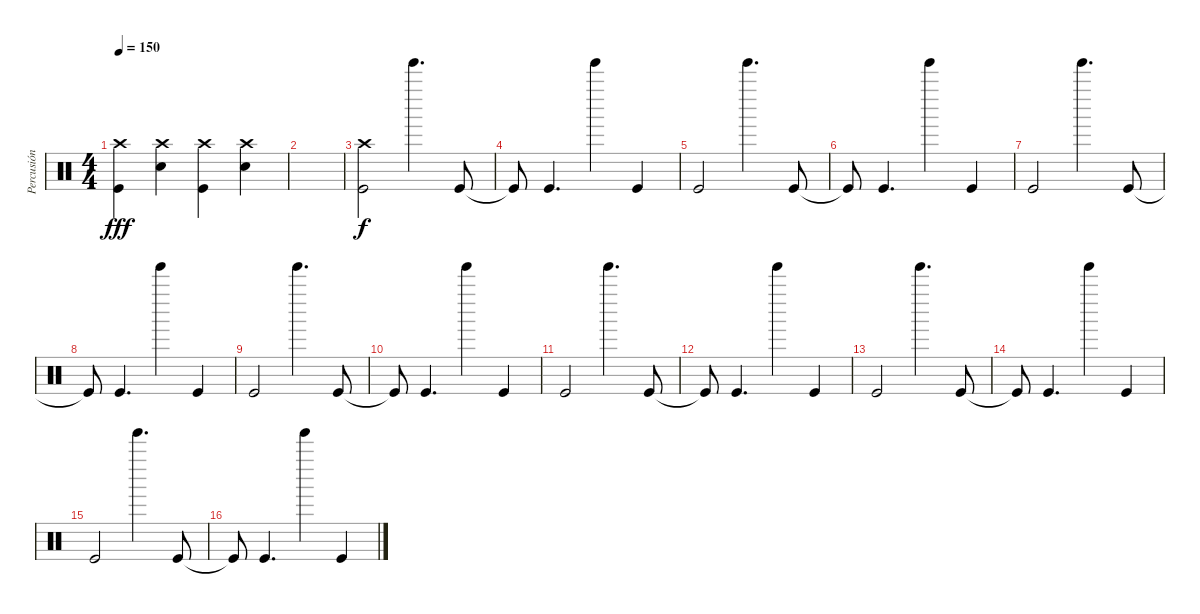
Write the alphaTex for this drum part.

\track ("Percusión" "Percusión") {instrument percussion bank 106}
\staff {score}
\articulation defaults
\ts (4 4)
\tempo 150
\clef neutral
\ks c
("Crash high (hit)" "Kick (hit)").4{dy fff} ("Crash high (hit)" "Electric Snare (hit)").4 ("Crash high (hit)" "Kick (hit)").4 ("Crash high (hit)" "Electric Snare (hit)").4 |
|
("Crash high (hit)" "Kick (hit)").2{dy f} "Tinkle Bell (hit)".4{d} "Kick (hit)".8 |
"Kick (hit)"{t}.8 "Kick (hit)".4{d} "Tinkle Bell (hit)".4 "Kick (hit)".4 |
"Kick (hit)".2 "Tinkle Bell (hit)".4{d} "Kick (hit)".8 |
"Kick (hit)"{t}.8 "Kick (hit)".4{d} "Tinkle Bell (hit)".4 "Kick (hit)".4 |
"Kick (hit)".2 "Tinkle Bell (hit)".4{d} "Kick (hit)".8 |
"Kick (hit)"{t}.8 "Kick (hit)".4{d} "Tinkle Bell (hit)".4 "Kick (hit)".4 |
"Kick (hit)".2 "Tinkle Bell (hit)".4{d} "Kick (hit)".8 |
"Kick (hit)"{t}.8 "Kick (hit)".4{d} "Tinkle Bell (hit)".4 "Kick (hit)".4 |
"Kick (hit)".2 "Tinkle Bell (hit)".4{d} "Kick (hit)".8 |
"Kick (hit)"{t}.8 "Kick (hit)".4{d} "Tinkle Bell (hit)".4 "Kick (hit)".4 |
"Kick (hit)".2 "Tinkle Bell (hit)".4{d} "Kick (hit)".8 |
"Kick (hit)"{t}.8 "Kick (hit)".4{d} "Tinkle Bell (hit)".4 "Kick (hit)".4 |
"Kick (hit)".2 "Tinkle Bell (hit)".4{d} "Kick (hit)".8 |
"Kick (hit)"{t}.8 "Kick (hit)".4{d} "Tinkle Bell (hit)".4 "Kick (hit)".4
